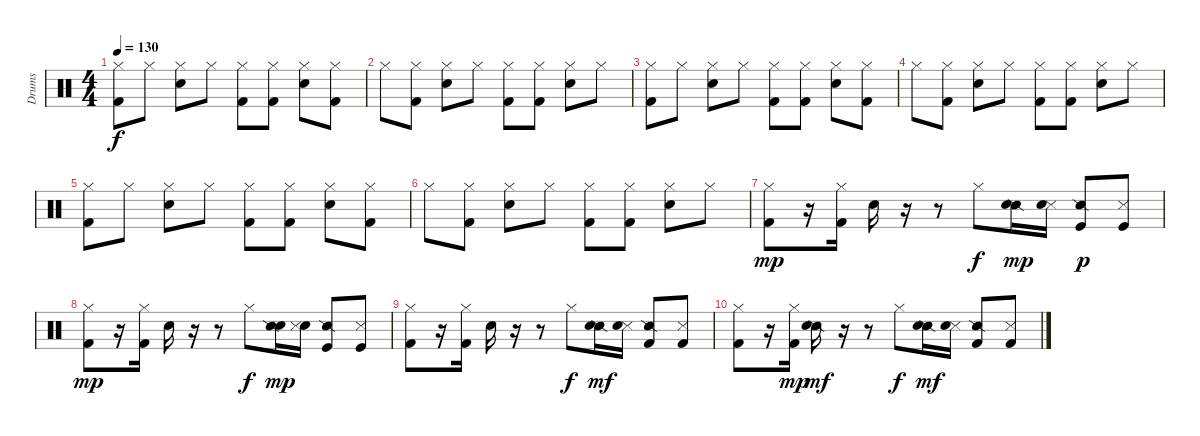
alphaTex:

\track ("Drums" "Drums") {instrument percussion}
\staff {score}
\articulation defaults
\ts (4 4)
\tempo 130
\clef neutral
\ks c
("Hi-Hat (closed)" "Kick (hit) 2").8{dy f} "Hi-Hat (closed)".8 ("Hi-Hat (closed)" "Electric Snare (hit)").8 "Hi-Hat (closed)".8 ("Hi-Hat (closed)" "Kick (hit) 2").8 ("Hi-Hat (closed)" "Kick (hit) 2").8 ("Hi-Hat (closed)" "Electric Snare (hit)").8 ("Hi-Hat (closed)" "Kick (hit) 2").8 |
"Hi-Hat (closed)".8 ("Hi-Hat (closed)" "Kick (hit) 2").8 ("Hi-Hat (closed)" "Electric Snare (hit)").8 "Hi-Hat (closed)".8 ("Hi-Hat (closed)" "Kick (hit) 2").8 ("Hi-Hat (closed)" "Kick (hit) 2").8 ("Hi-Hat (closed)" "Electric Snare (hit)").8 "Hi-Hat (closed)".8 |
("Hi-Hat (closed)" "Kick (hit) 2").8 "Hi-Hat (closed)".8 ("Hi-Hat (closed)" "Electric Snare (hit)").8 "Hi-Hat (closed)".8 ("Hi-Hat (closed)" "Kick (hit) 2").8 ("Hi-Hat (closed)" "Kick (hit) 2").8 ("Hi-Hat (closed)" "Electric Snare (hit)").8 ("Hi-Hat (closed)" "Kick (hit) 2").8 |
"Hi-Hat (closed)".8 ("Hi-Hat (closed)" "Kick (hit) 2").8 ("Hi-Hat (closed)" "Electric Snare (hit)").8 "Hi-Hat (closed)".8 ("Hi-Hat (closed)" "Kick (hit) 2").8 ("Hi-Hat (closed)" "Kick (hit) 2").8 ("Hi-Hat (closed)" "Electric Snare (hit)").8 "Hi-Hat (closed)".8 |
("Hi-Hat (closed)" "Kick (hit) 2").8 "Hi-Hat (closed)".8 ("Hi-Hat (closed)" "Electric Snare (hit)").8 "Hi-Hat (closed)".8 ("Hi-Hat (closed)" "Kick (hit) 2").8 ("Hi-Hat (closed)" "Kick (hit) 2").8 ("Hi-Hat (closed)" "Electric Snare (hit)").8 ("Hi-Hat (closed)" "Kick (hit) 2").8 |
"Hi-Hat (closed)".8 ("Hi-Hat (closed)" "Kick (hit) 2").8 ("Hi-Hat (closed)" "Electric Snare (hit)").8 "Hi-Hat (closed)".8 ("Hi-Hat (closed)" "Kick (hit) 2").8 ("Hi-Hat (closed)" "Kick (hit) 2").8 ("Hi-Hat (closed)" "Electric Snare (hit)").8 "Hi-Hat (closed)".8 |
("Hi-Hat (closed)" "Kick (hit) 2").8{dy mp volume 7} r.16 ("Hi-Hat (closed)" "Kick (hit) 2").16{volume 0} "Electric Snare (hit)".16 r.16 r.8 "Hi-Hat (closed)".8{dy f} ("Snare (side stick) 2" "Electric Snare (hit)").16{dy mp} ("Snare (side stick) 3" "Electric Snare (hit)").16 ("Snare (side stick) 2" "Kick (hit)").8{dy p} ("Snare (side stick) 3" "Kick (hit)").8 |
("Hi-Hat (closed)" "Kick (hit) 2").8{dy mp} r.16 ("Hi-Hat (closed)" "Kick (hit) 2").16 "Electric Snare (hit)".16 r.16 r.8 "Hi-Hat (closed)".8{dy f} ("Electric Snare (hit)" "Snare (side stick) 2").16{dy mp} ("Electric Snare (hit)" "Snare (side stick) 3").16 ("Kick (hit)" "Snare (side stick) 2").8 ("Kick (hit)" "Snare (side stick) 3").8 |
("Hi-Hat (closed)" "Kick (hit) 2").8 r.16 ("Hi-Hat (closed)" "Kick (hit) 2").16 "Electric Snare (hit)".16 r.16 r.8 "Hi-Hat (closed)".8{dy f} ("Snare (side stick) 2" "Electric Snare (hit)").16{dy mf} ("Metronome (hit)" "Electric Snare (hit)").16 ("Snare (side stick) 2" "Kick (hit) 2").8 ("Metronome (hit)" "Kick (hit) 2").8 |
("Hi-Hat (closed)" "Kick (hit) 2").8 r.16 ("Hi-Hat (closed)" "Kick (hit) 2").16{dy mp} ("Snare (side stick) 2" "Electric Snare (hit)").16{dy mf} r.16 r.8 "Hi-Hat (closed)".8{dy f} ("Snare (side stick) 2" "Electric Snare (hit)").16{dy mf} ("Snare (side stick) 3" "Electric Snare (hit)").16 ("Snare (side stick) 2" "Kick (hit) 2").8 ("Snare (side stick) 3" "Kick (hit) 2").8
